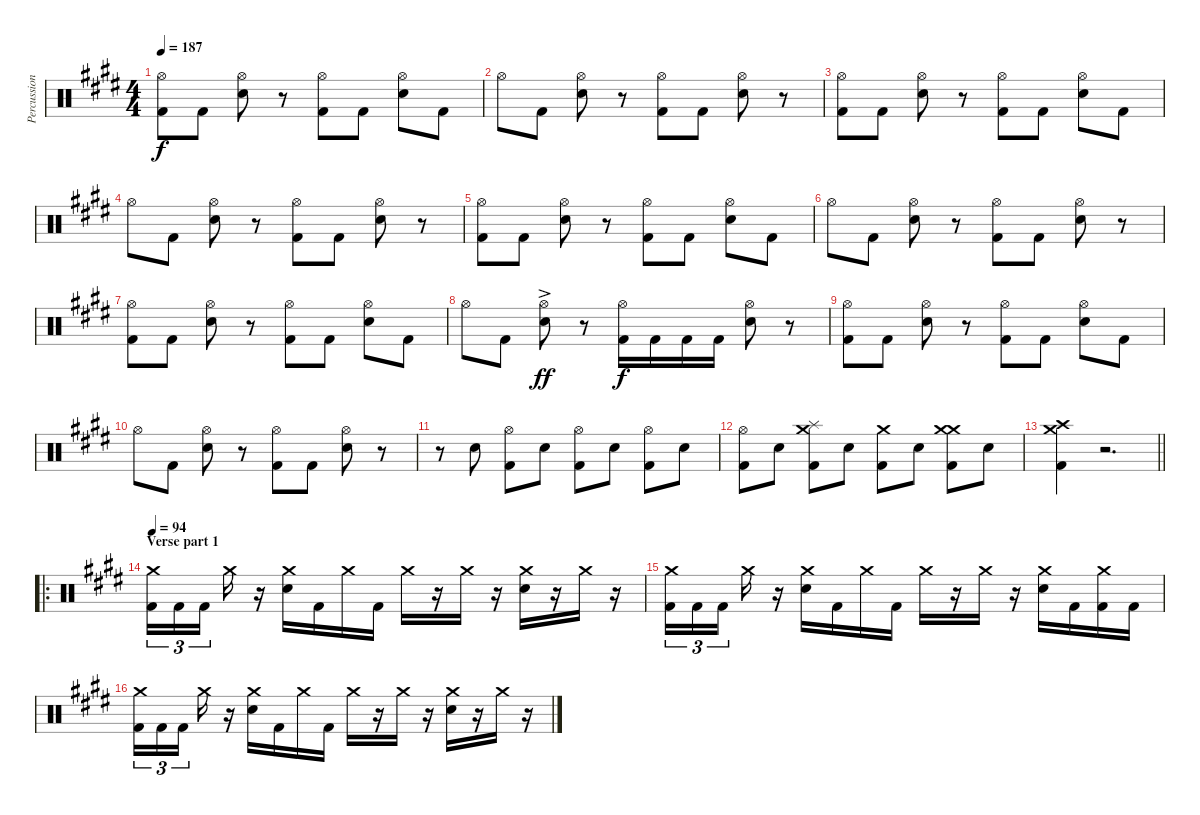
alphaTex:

\track ("Percussion" "Percussion") {instrument percussion}
\staff {score}
\articulation defaults
\ts (4 4)
\tempo 187
\clef neutral
\ks e
("Hi-Hat (open)" "Kick (hit) 2").8{dy f} "Kick (hit) 2".8 ("Hi-Hat (open)" "Snare (hit) 2").8 r.8 ("Hi-Hat (open)" "Kick (hit) 2").8 "Kick (hit) 2".8 ("Hi-Hat (open)" "Snare (hit) 2").8 "Kick (hit) 2".8 |
"Hi-Hat (open)".8 "Kick (hit) 2".8 ("Hi-Hat (open)" "Snare (hit) 2").8 r.8 ("Hi-Hat (open)" "Kick (hit) 2").8 "Kick (hit) 2".8 ("Hi-Hat (open)" "Snare (hit) 2").8 r.8 |
("Hi-Hat (open)" "Kick (hit) 2").8 "Kick (hit) 2".8 ("Hi-Hat (open)" "Snare (hit) 2").8 r.8 ("Hi-Hat (open)" "Kick (hit) 2").8 "Kick (hit) 2".8 ("Hi-Hat (open)" "Snare (hit) 2").8 "Kick (hit) 2".8 |
"Hi-Hat (open)".8 "Kick (hit) 2".8 ("Hi-Hat (open)" "Snare (hit) 2").8 r.8 ("Hi-Hat (open)" "Kick (hit) 2").8 "Kick (hit) 2".8 ("Hi-Hat (open)" "Snare (hit) 2").8 r.8 |
("Hi-Hat (open)" "Kick (hit) 2").8 "Kick (hit) 2".8 ("Hi-Hat (open)" "Snare (hit) 2").8 r.8 ("Hi-Hat (open)" "Kick (hit) 2").8 "Kick (hit) 2".8 ("Hi-Hat (open)" "Snare (hit) 2").8 "Kick (hit) 2".8 |
"Hi-Hat (open)".8 "Kick (hit) 2".8 ("Hi-Hat (open)" "Snare (hit) 2").8 r.8 ("Hi-Hat (open)" "Kick (hit) 2").8 "Kick (hit) 2".8 ("Hi-Hat (open)" "Snare (hit) 2").8 r.8 |
("Hi-Hat (open)" "Kick (hit) 2").8 "Kick (hit) 2".8 ("Hi-Hat (open)" "Snare (hit) 2").8 r.8 ("Hi-Hat (open)" "Kick (hit) 2").8 "Kick (hit) 2".8 ("Hi-Hat (open)" "Snare (hit) 2").8 "Kick (hit) 2".8 |
"Hi-Hat (open)".8 "Kick (hit) 2".8 ("Hi-Hat (open)"{ac} "Snare (hit) 2").8{dy ff} r.8 ("Hi-Hat (open)" "Kick (hit) 2").16{dy f} "Kick (hit) 2".16 "Kick (hit) 2".16 "Kick (hit) 2".16 ("Hi-Hat (open)" "Snare (hit) 2").8 r.8 |
("Hi-Hat (open)" "Kick (hit) 2").8 "Kick (hit) 2".8 ("Hi-Hat (open)" "Snare (hit) 2").8 r.8 ("Hi-Hat (open)" "Kick (hit) 2").8 "Kick (hit) 2".8 ("Hi-Hat (open)" "Snare (hit) 2").8 "Kick (hit) 2".8 |
"Hi-Hat (open)".8 "Kick (hit) 2".8 ("Hi-Hat (open)" "Snare (hit) 2").8 r.8 ("Hi-Hat (open)" "Kick (hit) 2").8 "Kick (hit) 2".8 ("Hi-Hat (open)" "Snare (hit) 2").8 r.8 |
r.8 "Snare (hit) 2".8 ("Hi-Hat (open)" "Kick (hit) 2").8 "Snare (hit) 2".8 ("Hi-Hat (open)" "Kick (hit) 2").8 "Snare (hit) 2".8 ("Hi-Hat (open)" "Kick (hit) 2").8 "Snare (hit) 2".8 |
("Hi-Hat (open)" "Kick (hit) 2").8 "Snare (hit) 2".8 ("Crash medium (hit)" "Splash (hit)" "Kick (hit) 2").8 "Snare (hit) 2".8 ("Crash medium (hit)" "Kick (hit) 2").8 "Snare (hit) 2".8 ("Crash medium (hit)" "Crash medium (hit)" "Kick (hit) 2").8 "Snare (hit) 2".8 |
\barLineRight lightlight
("Crash medium (hit)" "Crash high (hit)" "Kick (hit) 2").4 r.2{d} |
\ro
\section ("" "Verse part 1")
\tempo 94
("Crash medium (hit)" "Kick (hit) 2").16{tu (3 2)} "Kick (hit) 2".16{tu (3 2)} "Kick (hit) 2".16{tu (3 2)} "Crash medium (hit)".16 r.16 ("Crash medium (hit)" "Snare (hit) 2").16 "Kick (hit) 2".16 "Crash medium (hit)".16 "Kick (hit) 2".16 "Crash medium (hit)".16 r.16 "Crash medium (hit)".16 r.16 ("Crash medium (hit)" "Snare (hit) 2").16 r.16 "Crash medium (hit)".16 r.16 |
("Crash medium (hit)" "Kick (hit) 2").16{tu (3 2)} "Kick (hit) 2".16{tu (3 2)} "Kick (hit) 2".16{tu (3 2)} "Crash medium (hit)".16 r.16 ("Crash medium (hit)" "Snare (hit) 2").16 "Kick (hit) 2".16 "Crash medium (hit)".16 "Kick (hit) 2".16 "Crash medium (hit)".16 r.16 "Crash medium (hit)".16 r.16 ("Crash medium (hit)" "Snare (hit) 2").16 "Kick (hit) 2".16 ("Crash medium (hit)" "Kick (hit) 2").16 "Kick (hit) 2".16 |
("Crash medium (hit)" "Kick (hit) 2").16{tu (3 2)} "Kick (hit) 2".16{tu (3 2)} "Kick (hit) 2".16{tu (3 2)} "Crash medium (hit)".16 r.16 ("Crash medium (hit)" "Snare (hit) 2").16 "Kick (hit) 2".16 "Crash medium (hit)".16 "Kick (hit) 2".16 "Crash medium (hit)".16 r.16 "Crash medium (hit)".16 r.16 ("Crash medium (hit)" "Snare (hit) 2").16 r.16 "Crash medium (hit)".16 r.16
